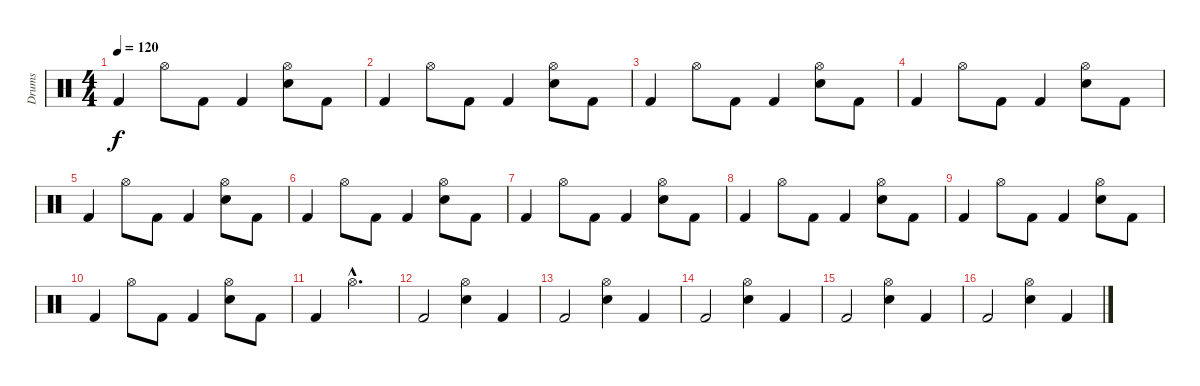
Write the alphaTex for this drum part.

\track ("Drums" "Drums") {instrument percussion}
\staff {score}
\articulation defaults
\ts (4 4)
\tempo 120
\clef neutral
\ks c "Kick (hit) 2".4{dy f} "Hi-Hat (open)".8 "Kick (hit) 2".8 "Kick (hit) 2".4
("Hi-Hat (open)" "Electric Snare (hit)").8 "Kick (hit) 2".8 |
"Kick (hit) 2".4 "Hi-Hat (open)".8 "Kick (hit) 2".8 "Kick (hit) 2".4 ("Hi-Hat (open)" "Electric Snare (hit)").8 "Kick (hit) 2".8 |
"Kick (hit) 2".4 "Hi-Hat (open)".8 "Kick (hit) 2".8 "Kick (hit) 2".4 ("Hi-Hat (open)" "Electric Snare (hit)").8 "Kick (hit) 2".8 |
"Kick (hit) 2".4 "Hi-Hat (open)".8 "Kick (hit) 2".8 "Kick (hit) 2".4 ("Hi-Hat (open)" "Electric Snare (hit)").8 "Kick (hit) 2".8 |
"Kick (hit) 2".4 "Hi-Hat (open)".8 "Kick (hit) 2".8 "Kick (hit) 2".4 ("Hi-Hat (open)" "Electric Snare (hit)").8 "Kick (hit) 2".8 |
"Kick (hit) 2".4 "Hi-Hat (open)".8 "Kick (hit) 2".8 "Kick (hit) 2".4 ("Hi-Hat (open)" "Electric Snare (hit)").8 "Kick (hit) 2".8 |
"Kick (hit) 2".4 "Hi-Hat (open)".8 "Kick (hit) 2".8 "Kick (hit) 2".4 ("Hi-Hat (open)" "Electric Snare (hit)").8 "Kick (hit) 2".8 |
"Kick (hit) 2".4 "Hi-Hat (open)".8 "Kick (hit) 2".8 "Kick (hit) 2".4 ("Hi-Hat (open)" "Electric Snare (hit)").8 "Kick (hit) 2".8 |
"Kick (hit) 2".4 "Hi-Hat (open)".8 "Kick (hit) 2".8 "Kick (hit) 2".4 ("Hi-Hat (open)" "Electric Snare (hit)").8 "Kick (hit) 2".8 |
"Kick (hit) 2".4 "Hi-Hat (open)".8 "Kick (hit) 2".8 "Kick (hit) 2".4 ("Hi-Hat (open)" "Electric Snare (hit)").8 "Kick (hit) 2".8 |
"Kick (hit) 2".4 "Hi-Hat (open)"{hac}.2{d} |
"Kick (hit) 2".2 ("Hi-Hat (open)" "Electric Snare (hit)").4 "Kick (hit) 2".4 |
"Kick (hit) 2".2 ("Hi-Hat (open)" "Electric Snare (hit)").4 "Kick (hit) 2".4 |
"Kick (hit) 2".2 ("Hi-Hat (open)" "Electric Snare (hit)").4 "Kick (hit) 2".4 |
"Kick (hit) 2".2 ("Hi-Hat (open)" "Electric Snare (hit)").4 "Kick (hit) 2".4 |
"Kick (hit) 2".2 ("Hi-Hat (open)" "Electric Snare (hit)").4 "Kick (hit) 2".4
